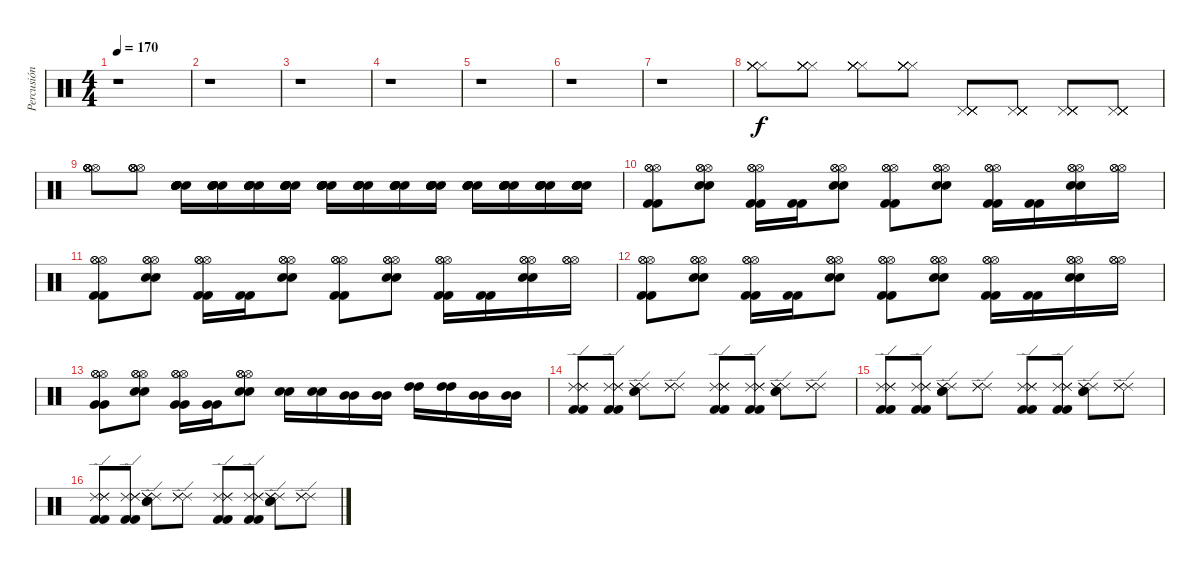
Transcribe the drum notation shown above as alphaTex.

\track ("Percusión" "Percusión") {instrument percussion}
\staff {score}
\articulation defaults
\ts (4 4)
\tempo 170
\clef neutral
\ks c
r.1{dy f} |
r.1 |
r.1 |
r.1 |
r.1 |
r.1 |
r.1 |
("Hi-Hat (closed)" "Hi-Hat (closed)" "Hi-Hat (closed)" "Hi-Hat (closed)" "Hi-Hat (closed)").8 ("Hi-Hat (closed)" "Hi-Hat (closed)" "Hi-Hat (closed)" "Hi-Hat (closed)" "Hi-Hat (closed)").8 ("Hi-Hat (closed)" "Hi-Hat (closed)" "Hi-Hat (closed)" "Hi-Hat (closed)" "Hi-Hat (closed)").8 ("Hi-Hat (closed)" "Hi-Hat (closed)" "Hi-Hat (closed)" "Hi-Hat (closed)" "Hi-Hat (closed)").8 ("Pedal Hi-Hat (hit)" "Pedal Hi-Hat (hit)" "Pedal Hi-Hat (hit)" "Pedal Hi-Hat (hit)" "Pedal Hi-Hat (hit)").8 ("Pedal Hi-Hat (hit)" "Pedal Hi-Hat (hit)" "Pedal Hi-Hat (hit)" "Pedal Hi-Hat (hit)" "Pedal Hi-Hat (hit)").8 ("Pedal Hi-Hat (hit)" "Pedal Hi-Hat (hit)" "Pedal Hi-Hat (hit)" "Pedal Hi-Hat (hit)" "Pedal Hi-Hat (hit)").8 ("Pedal Hi-Hat (hit)" "Pedal Hi-Hat (hit)" "Pedal Hi-Hat (hit)" "Pedal Hi-Hat (hit)" "Pedal Hi-Hat (hit)").8 |
("Hi-Hat (open)" "Hi-Hat (open)" "Hi-Hat (open)" "Hi-Hat (open)" "Hi-Hat (open)").8 ("Hi-Hat (open)" "Hi-Hat (open)" "Hi-Hat (open)" "Hi-Hat (open)" "Hi-Hat (open)").8 ("Snare (hit) 2" "Snare (hit) 2" "Snare (hit) 2" "Snare (hit) 2" "Snare (hit) 2").16 ("Snare (hit) 2" "Snare (hit) 2" "Snare (hit) 2" "Snare (hit) 2" "Snare (hit) 2").16 ("Snare (hit) 2" "Snare (hit) 2" "Snare (hit) 2" "Snare (hit) 2" "Snare (hit) 2").16 ("Snare (hit) 2" "Snare (hit) 2" "Snare (hit) 2" "Snare (hit) 2" "Snare (hit) 2").16 ("Snare (hit) 2" "Snare (hit) 2" "Snare (hit) 2" "Snare (hit) 2" "Snare (hit) 2").16 ("Snare (hit) 2" "Snare (hit) 2" "Snare (hit) 2" "Snare (hit) 2" "Snare (hit) 2").16 ("Snare (hit) 2" "Snare (hit) 2" "Snare (hit) 2" "Snare (hit) 2" "Snare (hit) 2").16 ("Snare (hit) 2" "Snare (hit) 2" "Snare (hit) 2" "Snare (hit) 2" "Snare (hit) 2").16 ("Snare (hit) 2" "Snare (hit) 2" "Snare (hit) 2" "Snare (hit) 2" "Snare (hit) 2").16 ("Snare (hit) 2" "Snare (hit) 2" "Snare (hit) 2" "Snare (hit) 2" "Snare (hit) 2").16 ("Snare (hit) 2" "Snare (hit) 2" "Snare (hit) 2" "Snare (hit) 2" "Snare (hit) 2").16 ("Snare (hit) 2" "Snare (hit) 2" "Snare (hit) 2" "Snare (hit) 2" "Snare (hit) 2").16 |
("Kick (hit) 2" "Kick (hit) 2" "Hi-Hat (open)" "Hi-Hat (open)" "Hi-Hat (open)").8 ("Snare (hit) 2" "Snare (hit) 2" "Hi-Hat (open)" "Hi-Hat (open)" "Hi-Hat (open)").8 ("Kick (hit) 2" "Kick (hit) 2" "Hi-Hat (open)" "Hi-Hat (open)" "Hi-Hat (open)").16 ("Kick (hit) 2" "Kick (hit) 2").16 ("Snare (hit) 2" "Snare (hit) 2" "Hi-Hat (open)" "Hi-Hat (open)" "Hi-Hat (open)").8 ("Kick (hit) 2" "Kick (hit) 2" "Hi-Hat (open)" "Hi-Hat (open)" "Hi-Hat (open)").8 ("Snare (hit) 2" "Snare (hit) 2" "Hi-Hat (open)" "Hi-Hat (open)" "Hi-Hat (open)").8 ("Kick (hit) 2" "Kick (hit) 2" "Hi-Hat (open)" "Hi-Hat (open)" "Hi-Hat (open)").16 ("Kick (hit) 2" "Kick (hit) 2").16 ("Snare (hit) 2" "Snare (hit) 2" "Hi-Hat (open)" "Hi-Hat (open)" "Hi-Hat (open)").16 ("Hi-Hat (open)" "Hi-Hat (open)" "Hi-Hat (open)").16 |
("Kick (hit) 2" "Kick (hit) 2" "Hi-Hat (open)" "Hi-Hat (open)" "Hi-Hat (open)").8 ("Snare (hit) 2" "Snare (hit) 2" "Hi-Hat (open)" "Hi-Hat (open)" "Hi-Hat (open)").8 ("Kick (hit) 2" "Kick (hit) 2" "Hi-Hat (open)" "Hi-Hat (open)" "Hi-Hat (open)").16 ("Kick (hit) 2" "Kick (hit) 2").16 ("Snare (hit) 2" "Snare (hit) 2" "Hi-Hat (open)" "Hi-Hat (open)" "Hi-Hat (open)").8 ("Kick (hit) 2" "Kick (hit) 2" "Hi-Hat (open)" "Hi-Hat (open)" "Hi-Hat (open)").8 ("Snare (hit) 2" "Snare (hit) 2" "Hi-Hat (open)" "Hi-Hat (open)" "Hi-Hat (open)").8 ("Kick (hit) 2" "Kick (hit) 2" "Hi-Hat (open)" "Hi-Hat (open)" "Hi-Hat (open)").16 ("Kick (hit) 2" "Kick (hit) 2").16 ("Snare (hit) 2" "Snare (hit) 2" "Hi-Hat (open)" "Hi-Hat (open)" "Hi-Hat (open)").16 ("Hi-Hat (open)" "Hi-Hat (open)" "Hi-Hat (open)").16 |
("Kick (hit) 2" "Kick (hit) 2" "Hi-Hat (open)" "Hi-Hat (open)" "Hi-Hat (open)").8 ("Snare (hit) 2" "Snare (hit) 2" "Hi-Hat (open)" "Hi-Hat (open)" "Hi-Hat (open)").8 ("Kick (hit) 2" "Kick (hit) 2" "Hi-Hat (open)" "Hi-Hat (open)" "Hi-Hat (open)").16 ("Kick (hit) 2" "Kick (hit) 2").16 ("Snare (hit) 2" "Snare (hit) 2" "Hi-Hat (open)" "Hi-Hat (open)" "Hi-Hat (open)").8 ("Kick (hit) 2" "Kick (hit) 2" "Hi-Hat (open)" "Hi-Hat (open)" "Hi-Hat (open)").8 ("Snare (hit) 2" "Snare (hit) 2" "Hi-Hat (open)" "Hi-Hat (open)" "Hi-Hat (open)").8 ("Kick (hit) 2" "Kick (hit) 2" "Hi-Hat (open)" "Hi-Hat (open)" "Hi-Hat (open)").16 ("Kick (hit) 2" "Kick (hit) 2").16 ("Snare (hit) 2" "Snare (hit) 2" "Hi-Hat (open)" "Hi-Hat (open)" "Hi-Hat (open)").16 ("Hi-Hat (open)" "Hi-Hat (open)" "Hi-Hat (open)").16 |
("Very Low Tom (hit)" "Very Low Tom (hit)" "Hi-Hat (open)" "Hi-Hat (open)" "Hi-Hat (open)").8 ("Snare (hit) 2" "Snare (hit) 2" "Hi-Hat (open)" "Hi-Hat (open)" "Hi-Hat (open)").8 ("Very Low Tom (hit)" "Very Low Tom (hit)" "Hi-Hat (open)" "Hi-Hat (open)" "Hi-Hat (open)").16 ("Very Low Tom (hit)" "Very Low Tom (hit)").16 ("Snare (hit) 2" "Snare (hit) 2" "Hi-Hat (open)" "Hi-Hat (open)" "Hi-Hat (open)").8 ("Snare (hit) 2" "Snare (hit) 2").16 ("Snare (hit) 2" "Snare (hit) 2").16 ("Mid Tom (hit)" "Mid Tom (hit)").16 ("Mid Tom (hit)" "Mid Tom (hit)").16 ("High Tom (hit)" "High Tom (hit)").16 ("High Tom (hit)" "High Tom (hit)").16 ("Mid Tom (hit)" "Mid Tom (hit)").16 ("Mid Tom (hit)" "Mid Tom (hit)").16 |
("Kick (hit) 2" "Kick (hit) 2" "Ride (edge) 2" "Ride (edge) 2" "Ride (edge) 2").8 ("Kick (hit) 2" "Kick (hit) 2" "Ride (edge) 2" "Ride (edge) 2" "Ride (edge) 2").8 ("Snare (hit) 2" "Snare (hit) 2" "Ride (edge) 2" "Ride (edge) 2" "Ride (edge) 2").8 ("Ride (edge) 2" "Ride (edge) 2" "Ride (edge) 2").8 ("Kick (hit) 2" "Kick (hit) 2" "Ride (edge) 2" "Ride (edge) 2" "Ride (edge) 2").8 ("Kick (hit) 2" "Kick (hit) 2" "Ride (edge) 2" "Ride (edge) 2" "Ride (edge) 2").8 ("Snare (hit) 2" "Snare (hit) 2" "Ride (edge) 2" "Ride (edge) 2" "Ride (edge) 2").8 ("Ride (edge) 2" "Ride (edge) 2" "Ride (edge) 2").8 |
("Kick (hit) 2" "Kick (hit) 2" "Ride (edge) 2" "Ride (edge) 2" "Ride (edge) 2").8 ("Kick (hit) 2" "Kick (hit) 2" "Ride (edge) 2" "Ride (edge) 2" "Ride (edge) 2").8 ("Snare (hit) 2" "Snare (hit) 2" "Ride (edge) 2" "Ride (edge) 2" "Ride (edge) 2").8 ("Ride (edge) 2" "Ride (edge) 2" "Ride (edge) 2").8 ("Kick (hit) 2" "Kick (hit) 2" "Ride (edge) 2" "Ride (edge) 2" "Ride (edge) 2").8 ("Kick (hit) 2" "Kick (hit) 2" "Ride (edge) 2" "Ride (edge) 2" "Ride (edge) 2").8 ("Snare (hit) 2" "Snare (hit) 2" "Ride (edge) 2" "Ride (edge) 2" "Ride (edge) 2").8 ("Ride (edge) 2" "Ride (edge) 2" "Ride (edge) 2").8 |
("Kick (hit) 2" "Kick (hit) 2" "Ride (edge) 2" "Ride (edge) 2" "Ride (edge) 2").8 ("Kick (hit) 2" "Kick (hit) 2" "Ride (edge) 2" "Ride (edge) 2" "Ride (edge) 2").8 ("Snare (hit) 2" "Snare (hit) 2" "Ride (edge) 2" "Ride (edge) 2" "Ride (edge) 2").8 ("Ride (edge) 2" "Ride (edge) 2" "Ride (edge) 2").8 ("Kick (hit) 2" "Kick (hit) 2" "Ride (edge) 2" "Ride (edge) 2" "Ride (edge) 2").8 ("Kick (hit) 2" "Kick (hit) 2" "Ride (edge) 2" "Ride (edge) 2" "Ride (edge) 2").8 ("Snare (hit) 2" "Snare (hit) 2" "Ride (edge) 2" "Ride (edge) 2" "Ride (edge) 2").8 ("Ride (edge) 2" "Ride (edge) 2" "Ride (edge) 2").8
